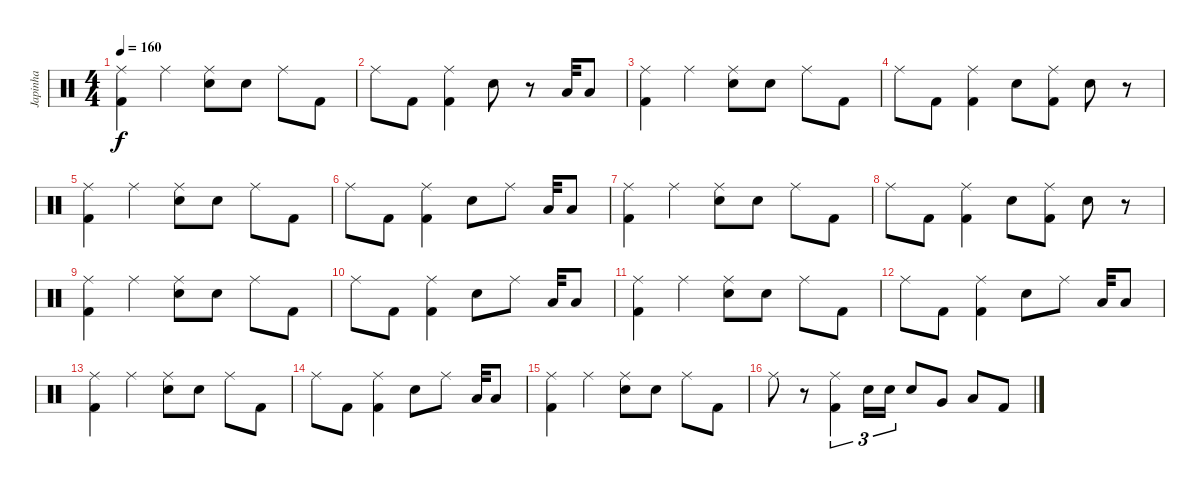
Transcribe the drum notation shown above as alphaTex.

\track ("Japinha" "Japinha") {instrument percussion}
\staff {score}
\articulation defaults
\ts (4 4)
\tempo 160
\clef neutral
\ks c
("Ride (middle)" "Kick (hit) 2").4{dy f} "Ride (middle)".4 ("Ride (middle)" "Snare (hit) 2").8 "Snare (hit) 2".8 "Ride (middle)".8 "Kick (hit) 2".8 |
"Ride (middle)".8 "Kick (hit) 2".8 ("Ride (middle)" "Kick (hit) 2").4 "Snare (hit) 2".8 r.8 "Low Tom (hit)".32 "Low Tom (hit)".8 |
("Ride (middle)" "Kick (hit) 2").4 "Ride (middle)".4 ("Ride (middle)" "Snare (hit) 2").8 "Snare (hit) 2".8 "Ride (middle)".8 "Kick (hit) 2".8 |
"Ride (middle)".8 "Kick (hit) 2".8 ("Ride (middle)" "Kick (hit) 2").4 "Snare (hit) 2".8 ("Ride (middle)" "Kick (hit) 2").8 "Snare (hit) 2".8 r.8 |
("Ride (middle)" "Kick (hit) 2").4 "Ride (middle)".4 ("Ride (middle)" "Snare (hit) 2").8 "Snare (hit) 2".8 "Ride (middle)".8 "Kick (hit) 2".8 |
"Ride (middle)".8 "Kick (hit) 2".8 ("Ride (middle)" "Kick (hit) 2").4 "Snare (hit) 2".8 "Ride (middle)".8 "Low Tom (hit)".32 "Low Tom (hit)".8 |
("Ride (middle)" "Kick (hit) 2").4 "Ride (middle)".4 ("Ride (middle)" "Snare (hit) 2").8 "Snare (hit) 2".8 "Ride (middle)".8 "Kick (hit) 2".8 |
"Ride (middle)".8 "Kick (hit) 2".8 ("Ride (middle)" "Kick (hit) 2").4 "Snare (hit) 2".8 ("Ride (middle)" "Kick (hit) 2").8 "Snare (hit) 2".8 r.8 |
("Ride (middle)" "Kick (hit) 2").4 "Ride (middle)".4 ("Ride (middle)" "Snare (hit) 2").8 "Snare (hit) 2".8 "Ride (middle)".8 "Kick (hit) 2".8 |
"Ride (middle)".8 "Kick (hit) 2".8 ("Ride (middle)" "Kick (hit) 2").4 "Snare (hit) 2".8 "Ride (middle)".8 "Low Tom (hit)".32 "Low Tom (hit)".8 |
("Ride (middle)" "Kick (hit) 2").4 "Ride (middle)".4 ("Ride (middle)" "Snare (hit) 2").8 "Snare (hit) 2".8 "Ride (middle)".8 "Kick (hit) 2".8 |
"Ride (middle)".8 "Kick (hit) 2".8 ("Ride (middle)" "Kick (hit) 2").4 "Snare (hit) 2".8 "Ride (middle)".8 "Low Tom (hit)".32 "Low Tom (hit)".8 |
("Ride (middle)" "Kick (hit) 2").4 "Ride (middle)".4 ("Ride (middle)" "Snare (hit) 2").8 "Snare (hit) 2".8 "Ride (middle)".8 "Kick (hit) 2".8 |
"Ride (middle)".8 "Kick (hit) 2".8 ("Ride (middle)" "Kick (hit) 2").4 "Snare (hit) 2".8 "Ride (middle)".8 "Low Tom (hit)".32 "Low Tom (hit)".8 |
("Ride (middle)" "Kick (hit) 2").4 "Ride (middle)".4 ("Ride (middle)" "Snare (hit) 2").8 "Snare (hit) 2".8 "Ride (middle)".8 "Kick (hit) 2".8 |
"Ride (middle)".8 r.8 ("Ride (middle)" "Kick (hit) 2").4{tu (3 2)} "Snare (hit) 2".16{tu (3 2)} "Snare (hit) 2".16{tu (3 2)} "Snare (hit) 2".8 "Very Low Tom (hit)".8 "Low Tom (hit)".8 "Kick (hit) 2".8
